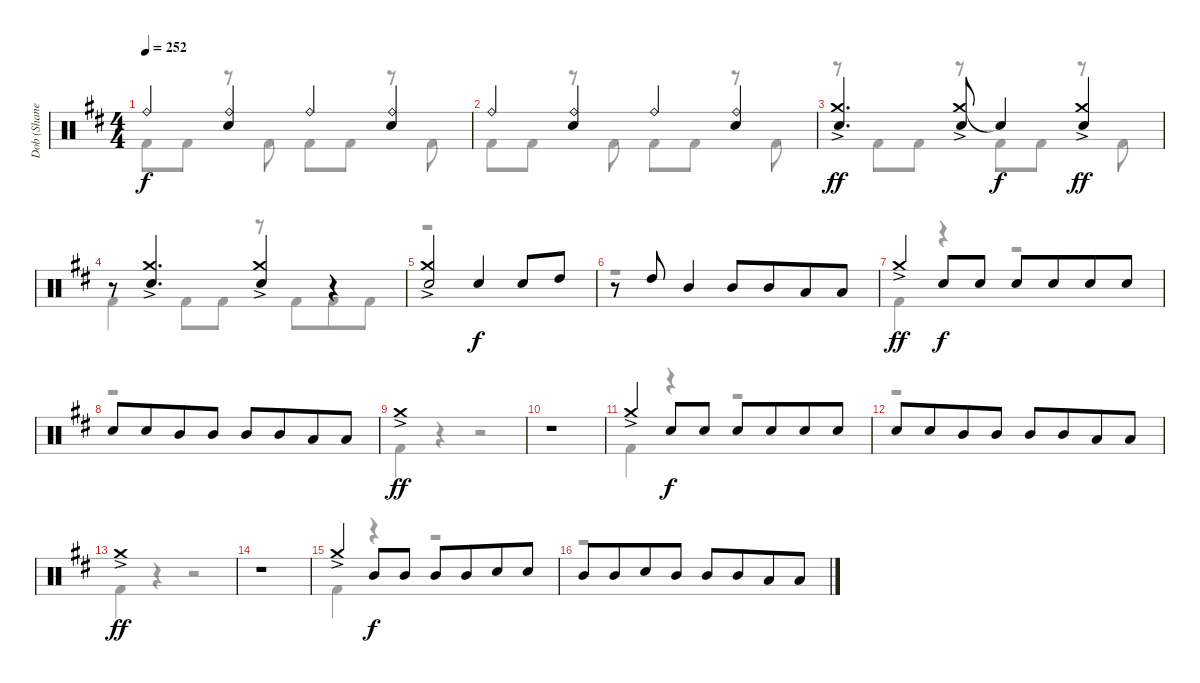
\track ("Dob (Shane Gaalaas)" "Dob (Shane") {instrument percussion}
\staff {score}
\articulation defaults
\voice
\ts (4 4)
\tempo 252
\clef neutral
\ks d "Ride (bell)".4{dy f}
("Ride (bell)" "Electric Snare (hit)").4 "Ride (bell)".4 ("Ride (bell)" "Electric Snare (hit)").4 |
"Ride (bell)".4 ("Ride (bell)" "Electric Snare (hit)").4 "Ride (bell)".4 ("Ride (bell)" "Electric Snare (hit)").4 |
("Crash medium (hit)"{ac} "Electric Snare (hit)").4{d dy ff} ("Crash medium (hit)"{ac} "Electric Snare (hit)").8 "Snare (hit)"{t}.4{dy f} ("Crash medium (hit)"{ac} "Electric Snare (hit)").4{dy ff} |
r.8 ("Crash medium (hit)"{ac} "Electric Snare (hit)").4{d} ("Crash medium (hit)"{ac} "Electric Snare (hit)").4 r.4 |
("Crash medium (hit)"{ac} "Electric Snare (hit)").2 "Electric Snare (hit)".4{dy f} "Electric Snare (hit)".8 "High Tom (hit)".8 |
r.8 "High Tom (hit)".8 "Mid Tom (hit)".4 "Mid Tom (hit)".8 "Mid Tom (hit)".8{beam merge} "Low Tom (hit)".8 "Low Tom (hit)".8 |
"Crash medium (hit)"{ac}.4{dy ff} "Electric Snare (hit)".8{dy f} "Electric Snare (hit)".8 "Electric Snare (hit)".8 "Electric Snare (hit)".8{beam merge} "Electric Snare (hit)".8 "Electric Snare (hit)".8 |
"Electric Snare (hit)".8 "Electric Snare (hit)".8{beam merge} "Mid Tom (hit)".8 "Mid Tom (hit)".8 "Mid Tom (hit)".8 "Mid Tom (hit)".8{beam merge} "Low Tom (hit)".8 "Low Tom (hit)".8 |
"Crash medium (hit)"{ac}.1{dy ff} |
r.1 |
"Crash medium (hit)"{ac}.4 "Electric Snare (hit)".8{dy f} "Electric Snare (hit)".8 "Electric Snare (hit)".8 "Electric Snare (hit)".8{beam merge} "Electric Snare (hit)".8 "Electric Snare (hit)".8 |
"Electric Snare (hit)".8 "Electric Snare (hit)".8{beam merge} "Mid Tom (hit)".8 "Mid Tom (hit)".8 "Mid Tom (hit)".8 "Mid Tom (hit)".8{beam merge} "Low Tom (hit)".8 "Low Tom (hit)".8 |
"Crash medium (hit)"{ac}.1{dy ff} |
r.1 |
"Crash medium (hit)"{ac}.4 "Mid Tom (hit)".8{dy f} "Mid Tom (hit)".8 "Mid Tom (hit)".8 "Mid Tom (hit)".8{beam merge} "Electric Snare (hit)".8 "Electric Snare (hit)".8 |
"Mid Tom (hit)".8 "Mid Tom (hit)".8{beam merge} "Electric Snare (hit)".8 "Mid Tom (hit)".8 "Mid Tom (hit)".8 "Mid Tom (hit)".8{beam merge} "Low Tom (hit)".8 "Low Tom (hit)".8
\voice
\clef neutral
\ottava regular
\simile none
\ks d "Kick (hit) 2".8{dy f} "Kick (hit) 2".8
r.8 "Kick (hit) 2".8 "Kick (hit) 2".8 "Kick (hit) 2".8 r.8 "Kick (hit) 2".8 |
"Kick (hit) 2".8 "Kick (hit) 2".8 r.8 "Kick (hit) 2".8 "Kick (hit) 2".8 "Kick (hit) 2".8 r.8 "Kick (hit) 2".8 |
r.8 "Kick (hit) 2".8{beam merge} "Kick (hit) 2".8 r.8 "Kick (hit) 2".8{beam merge} "Kick (hit) 2".8 r.8 "Kick (hit) 2".8 |
"Kick (hit) 2".4 "Kick (hit) 2".8 "Kick (hit) 2".8 r.8 "Kick (hit) 2".8{beam merge} "Kick (hit) 2".8 "Kick (hit) 2".8 |
r.1 |
r.1 |
"Kick (hit) 2".4 r.4 r.2 |
r.1 |
"Kick (hit) 2".4 r.4 r.2 |
r.1 |
"Kick (hit) 2".4 r.4 r.2 |
r.1 |
"Kick (hit) 2".4 r.4 r.2 |
r.1 |
"Kick (hit) 2".4 r.4 r.2 |
r.1
